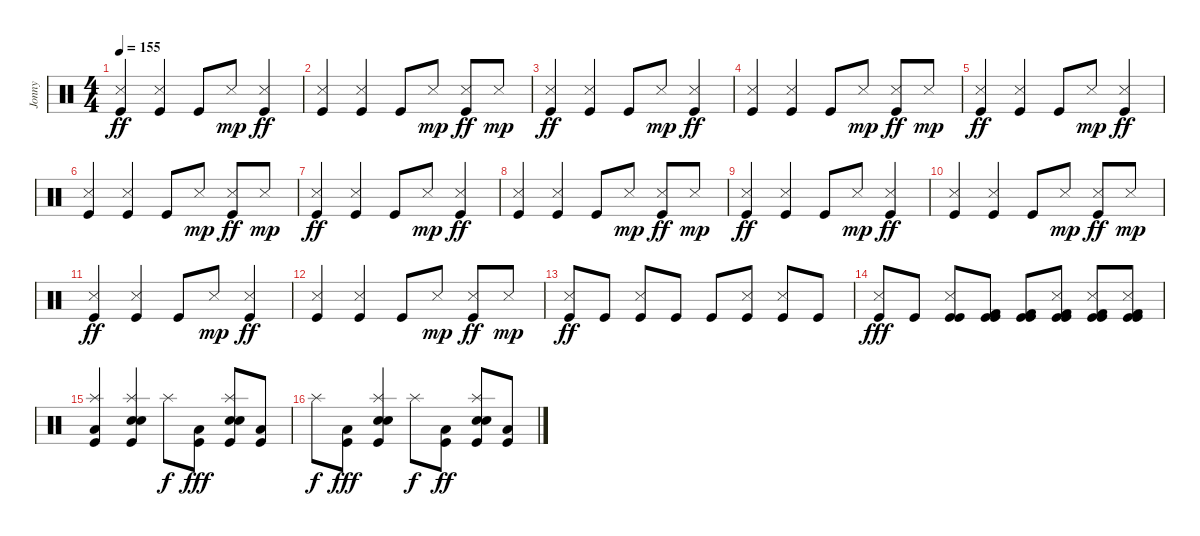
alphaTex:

\track ("Jonny" "Jonny") {instrument percussion}
\staff {score}
\articulation defaults
\ts (4 4)
\tempo 155
\clef neutral
\ks c
("Metronome (hit)" "Kick (hit)").4{dy ff} ("Metronome (hit)" "Kick (hit)").4 "Kick (hit)".8 "Metronome (hit)".8{dy mp} ("Metronome (hit)" "Kick (hit)").4{dy ff} |
("Metronome (hit)" "Kick (hit)").4 ("Metronome (hit)" "Kick (hit)").4 "Kick (hit)".8 "Metronome (hit)".8{dy mp} ("Metronome (hit)" "Kick (hit)").8{dy ff} "Metronome (hit)".8{dy mp} |
("Metronome (hit)" "Kick (hit)").4{dy ff} ("Metronome (hit)" "Kick (hit)").4 "Kick (hit)".8 "Metronome (hit)".8{dy mp} ("Metronome (hit)" "Kick (hit)").4{dy ff} |
("Metronome (hit)" "Kick (hit)").4 ("Metronome (hit)" "Kick (hit)").4 "Kick (hit)".8 "Metronome (hit)".8{dy mp} ("Metronome (hit)" "Kick (hit)").8{dy ff} "Metronome (hit)".8{dy mp} |
("Metronome (hit)" "Kick (hit)").4{dy ff} ("Metronome (hit)" "Kick (hit)").4 "Kick (hit)".8 "Metronome (hit)".8{dy mp} ("Metronome (hit)" "Kick (hit)").4{dy ff} |
("Metronome (hit)" "Kick (hit)").4 ("Metronome (hit)" "Kick (hit)").4 "Kick (hit)".8 "Metronome (hit)".8{dy mp} ("Metronome (hit)" "Kick (hit)").8{dy ff} "Metronome (hit)".8{dy mp} |
("Metronome (hit)" "Kick (hit)").4{dy ff} ("Metronome (hit)" "Kick (hit)").4 "Kick (hit)".8 "Metronome (hit)".8{dy mp} ("Metronome (hit)" "Kick (hit)").4{dy ff} |
("Metronome (hit)" "Kick (hit)").4 ("Metronome (hit)" "Kick (hit)").4 "Kick (hit)".8 "Metronome (hit)".8{dy mp} ("Metronome (hit)" "Kick (hit)").8{dy ff} "Metronome (hit)".8{dy mp} |
("Metronome (hit)" "Kick (hit)").4{dy ff} ("Metronome (hit)" "Kick (hit)").4 "Kick (hit)".8 "Metronome (hit)".8{dy mp} ("Metronome (hit)" "Kick (hit)").4{dy ff} |
("Metronome (hit)" "Kick (hit)").4 ("Metronome (hit)" "Kick (hit)").4 "Kick (hit)".8 "Metronome (hit)".8{dy mp} ("Metronome (hit)" "Kick (hit)").8{dy ff} "Metronome (hit)".8{dy mp} |
("Metronome (hit)" "Kick (hit)").4{dy ff} ("Metronome (hit)" "Kick (hit)").4 "Kick (hit)".8 "Metronome (hit)".8{dy mp} ("Metronome (hit)" "Kick (hit)").4{dy ff} |
("Metronome (hit)" "Kick (hit)").4 ("Metronome (hit)" "Kick (hit)").4 "Kick (hit)".8 "Metronome (hit)".8{dy mp} ("Metronome (hit)" "Kick (hit)").8{dy ff} "Metronome (hit)".8{dy mp} |
("Metronome (hit)" "Kick (hit)").8{dy ff} "Kick (hit)".8 ("Metronome (hit)" "Kick (hit)").8 "Kick (hit)".8 "Kick (hit)".8 ("Metronome (hit)" "Kick (hit)").8 ("Metronome (hit)" "Kick (hit)").8 "Kick (hit)".8 |
("Metronome (hit)" "Kick (hit)").8{dy fff} "Kick (hit)".8 ("Metronome (hit)" "Kick (hit)" "Kick (hit)").8 ("Kick (hit) 2" "Kick (hit)" "Kick (hit)").8 ("Kick (hit) 2" "Kick (hit)" "Kick (hit)").8 ("Metronome (hit)" "Kick (hit) 2" "Kick (hit)" "Kick (hit)").8 ("Metronome (hit)" "Kick (hit) 2" "Kick (hit)" "Kick (hit)").8 ("Metronome (hit)" "Kick (hit) 2" "Kick (hit)" "Kick (hit)").8 |
("Splash (hit)" "Low Floor Tom (hit)" "Kick (hit)").4 ("Splash (hit)" "Electric Snare (hit)" "Electric Snare (hit)" "Kick (hit)").4 "Splash (hit)".8{dy f} ("Low Floor Tom (hit)" "Kick (hit)").8{dy fff} ("Splash (hit)" "Electric Snare (hit)" "Electric Snare (hit)" "Kick (hit)").8 ("Low Floor Tom (hit)" "Kick (hit)").8 |
"Splash (hit)".8{dy f} ("Low Floor Tom (hit)" "Kick (hit)").8{dy fff} ("Splash (hit)" "Electric Snare (hit)" "Electric Snare (hit)" "Kick (hit)").4 "Splash (hit)".8{dy f} ("Low Floor Tom (hit)" "Kick (hit)").8{dy ff} ("Splash (hit)" "Electric Snare (hit)" "Electric Snare (hit)" "Kick (hit)").8 ("Low Floor Tom (hit)" "Kick (hit)").8
